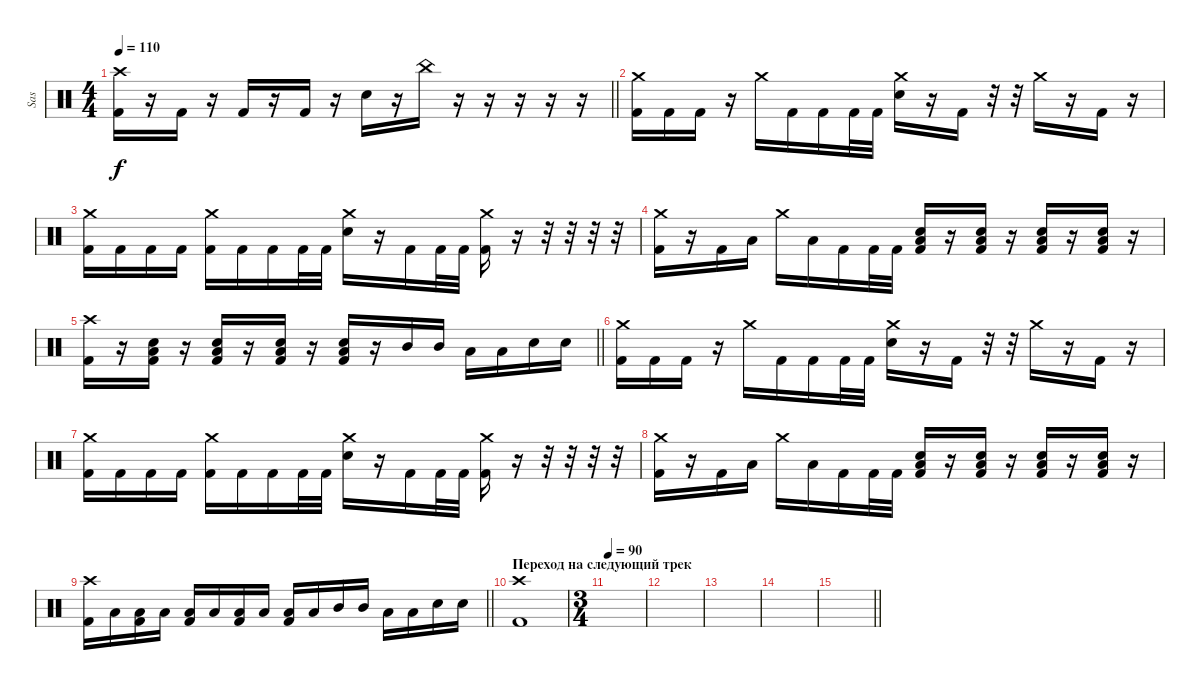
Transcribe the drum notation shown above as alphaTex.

\track ("Sas" "Sas") {instrument percussion}
\staff {score}
\articulation defaults
\ts (4 4)
\tempo 110
\clef neutral
\barLineRight lightlight
\ks c
("Crash high (hit)" "Kick (hit) 2").16{dy f} r.16 "Kick (hit) 2".16 r.16 "Kick (hit) 2".16 r.16 "Kick (hit) 2".16 r.16 "Snare (hit) 2".16 r.16 "China (hit)".16 r.16 r.16 r.16 r.16 r.16 |
("Crash medium (hit)" "Kick (hit) 2").16 "Kick (hit) 2".16 "Kick (hit) 2".16 r.16 "Crash medium (hit)".16 "Kick (hit) 2".16 "Kick (hit) 2".16 "Kick (hit) 2".32 "Kick (hit) 2".32 ("Crash medium (hit)" "Snare (hit) 2").16 r.16 "Kick (hit) 2".16 r.32 r.32 "Crash medium (hit)".16 r.16 "Kick (hit) 2".16 r.16 |
("Crash medium (hit)" "Kick (hit) 2").16 "Kick (hit) 2".16 "Kick (hit) 2".16 "Kick (hit) 2".16 ("Crash medium (hit)" "Kick (hit) 2").16 "Kick (hit) 2".16 "Kick (hit) 2".16 "Kick (hit) 2".32 "Kick (hit) 2".32 ("Crash medium (hit)" "Snare (hit) 2").16 r.16 "Kick (hit) 2".16 "Kick (hit) 2".32 "Kick (hit) 2".32 ("Crash medium (hit)" "Kick (hit) 2").16 r.16 r.32 r.32 r.32 r.32 |
("Crash medium (hit)" "Kick (hit) 2").16 r.16 "Kick (hit) 2".16 "Low Tom (hit)".16 "Crash medium (hit)".16 "Low Tom (hit)".16 "Kick (hit) 2".16 "Kick (hit) 2".32 "Kick (hit) 2".32 ("Low Tom (hit)" "Snare (hit) 2" "Kick (hit) 2").16 r.16 ("Low Tom (hit)" "Snare (hit) 2" "Kick (hit) 2").16 r.16 ("Low Tom (hit)" "Snare (hit) 2" "Kick (hit) 2").16 r.16 ("Low Tom (hit)" "Snare (hit) 2" "Kick (hit) 2").16 r.16 |
\barLineRight lightlight
("Crash high (hit)" "Kick (hit) 2").16 r.16 ("Low Tom (hit)" "Snare (hit) 2" "Kick (hit) 2").16 r.16 ("Low Tom (hit)" "Snare (hit) 2" "Kick (hit) 2").16 r.16 ("Low Tom (hit)" "Snare (hit) 2" "Kick (hit) 2").16 r.16 ("Low Tom (hit)" "Snare (hit) 2" "Kick (hit) 2").16 r.16 "Mid Tom (hit)".16 "Mid Tom (hit)".16 "Low Tom (hit)".16 "Low Tom (hit)".16 "Snare (hit) 2".16 "Snare (hit) 2".16 |
("Crash medium (hit)" "Kick (hit) 2").16 "Kick (hit) 2".16 "Kick (hit) 2".16 r.16 "Crash medium (hit)".16 "Kick (hit) 2".16 "Kick (hit) 2".16 "Kick (hit) 2".32 "Kick (hit) 2".32 ("Crash medium (hit)" "Snare (hit) 2").16 r.16 "Kick (hit) 2".16 r.32 r.32 "Crash medium (hit)".16 r.16 "Kick (hit) 2".16 r.16 |
("Crash medium (hit)" "Kick (hit) 2").16 "Kick (hit) 2".16 "Kick (hit) 2".16 "Kick (hit) 2".16 ("Crash medium (hit)" "Kick (hit) 2").16 "Kick (hit) 2".16 "Kick (hit) 2".16 "Kick (hit) 2".32 "Kick (hit) 2".32 ("Crash medium (hit)" "Snare (hit) 2").16 r.16 "Kick (hit) 2".16 "Kick (hit) 2".32 "Kick (hit) 2".32 ("Crash medium (hit)" "Kick (hit) 2").16 r.16 r.32 r.32 r.32 r.32 |
("Crash medium (hit)" "Kick (hit) 2").16 r.16 "Kick (hit) 2".16 "Low Tom (hit)".16 "Crash medium (hit)".16 "Low Tom (hit)".16 "Kick (hit) 2".16 "Kick (hit) 2".32 "Kick (hit) 2".32 ("Low Tom (hit)" "Snare (hit) 2" "Kick (hit) 2").16 r.16 ("Low Tom (hit)" "Snare (hit) 2" "Kick (hit) 2").16 r.16 ("Low Tom (hit)" "Snare (hit) 2" "Kick (hit) 2").16 r.16 ("Low Tom (hit)" "Snare (hit) 2" "Kick (hit) 2").16 r.16 |
\barLineRight lightlight
("Crash high (hit)" "Kick (hit) 2").16 "Low Tom (hit)".16 ("Low Tom (hit)" "Kick (hit) 2").16 "Low Tom (hit)".16 ("Low Tom (hit)" "Kick (hit) 2").16 "Low Tom (hit)".16 ("Low Tom (hit)" "Kick (hit) 2").16 "Low Tom (hit)".16 ("Low Tom (hit)" "Kick (hit) 2").16 "Low Tom (hit)".16 "Mid Tom (hit)".16 "Mid Tom (hit)".16 "Low Tom (hit)".16 "Low Tom (hit)".16 "Snare (hit) 2".16 "Snare (hit) 2".16 |
\section ("" "Переход на следующий трек")
("Crash high (hit)" "Kick (hit) 2").1 |
\ts (3 4)
\tempo 90
|
|
|
|
\barLineRight lightlight
